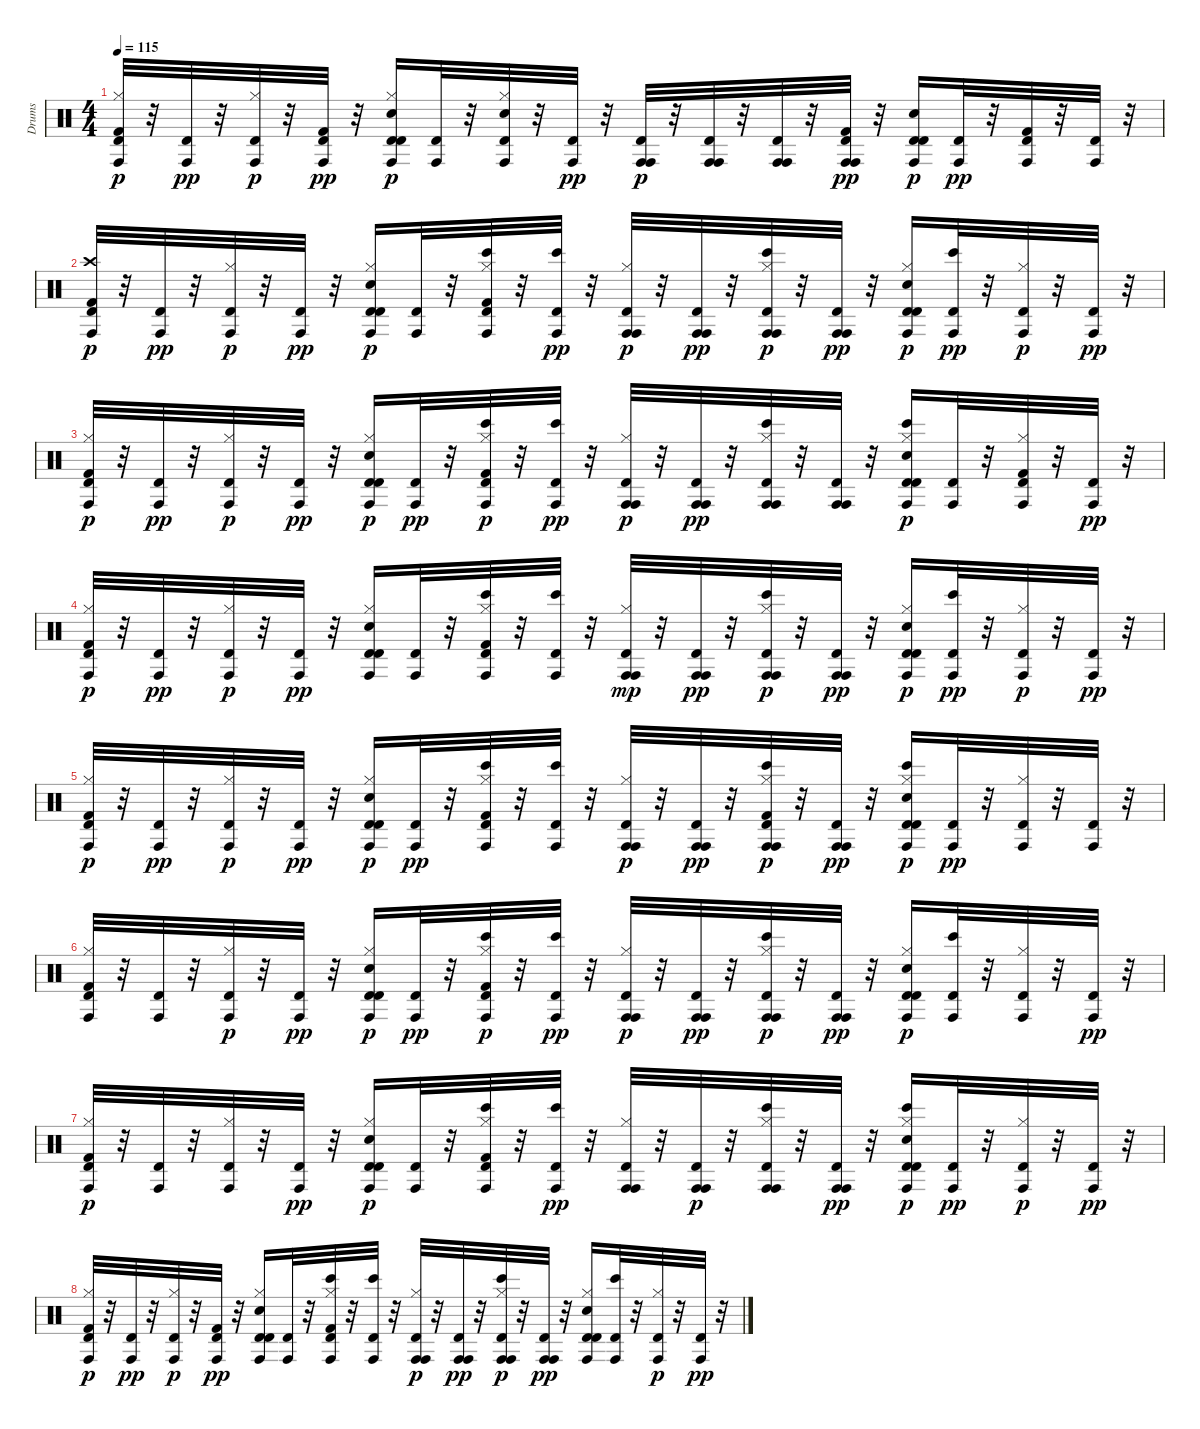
\track ("Drums" "Drums") {instrument percussion}
\staff {score}
\articulation defaults
\ts (4 4)
\tempo 115
\clef neutral
\ks c
("Conga high (hit)" "Hi-Hat (closed)" "Kick (hit) 2" "Timbale high (hit)").32{dy p} r.32 ("Conga high (hit)" "Timbale high (hit)").32{dy pp} r.32 ("Conga high (hit)" "Hi-Hat (closed)" "Timbale high (hit)").32{dy p} r.32 ("Conga high (hit)" "Kick (hit) 2" "Timbale high (hit)").32{dy pp} r.32 ("Conga high (hit)" "Timbale high (hit)" "Hi-Hat (closed)" "Electric Snare (hit)" "Timbale high (hit)").16{dy p} ("Conga high (hit)" "Timbale high (hit)").32 r.32 ("Conga high (hit)" "Electric Snare (hit)" "Hi-Hat (closed)" "Timbale high (hit)").32 r.32 ("Conga high (hit)" "Timbale high (hit)").32{dy pp} r.32 ("Conga high (hit)" "Conga high (hit)" "Timbale high (hit)").32{dy p} r.32 ("Conga high (hit)" "Conga high (hit)" "Timbale high (hit)").32 r.32 ("Conga high (hit)" "Conga high (hit)" "Timbale high (hit)").32 r.32 ("Conga high (hit)" "Conga high (hit)" "Kick (hit) 2" "Timbale high (hit)").32{dy pp} r.32 ("Conga high (hit)" "Timbale high (hit)" "Electric Snare (hit)" "Timbale high (hit)").16{dy p} ("Conga high (hit)" "Timbale high (hit)").32{dy pp} r.32 ("Conga high (hit)" "Kick (hit) 2" "Timbale high (hit)").32 r.32 ("Conga high (hit)" "Timbale high (hit)").32 r.32 |
("Conga high (hit)" "Crash high (hit)" "Kick (hit) 2" "Timbale high (hit)").32{dy p} r.32 ("Conga high (hit)" "Timbale high (hit)").32{dy pp} r.32 ("Conga high (hit)" "Hi-Hat (closed)" "Timbale high (hit)").32{dy p} r.32 ("Conga high (hit)" "Timbale high (hit)").32{dy pp} r.32 ("Conga high (hit)" "Timbale high (hit)" "Hi-Hat (closed)" "Electric Snare (hit)" "Timbale high (hit)").16{dy p} ("Conga high (hit)" "Timbale high (hit)").32 r.32 ("Conga high (hit)" "Bongo High (hit)" "Hi-Hat (closed)" "Kick (hit) 2" "Timbale high (hit)").32 r.32 ("Conga high (hit)" "Bongo High (hit)" "Timbale high (hit)").32{dy pp} r.32 ("Conga high (hit)" "Conga high (hit)" "Hi-Hat (closed)" "Timbale high (hit)").32{dy p} r.32 ("Conga high (hit)" "Conga high (hit)" "Timbale high (hit)").32{dy pp} r.32 ("Conga high (hit)" "Conga high (hit)" "Bongo High (hit)" "Hi-Hat (closed)" "Timbale high (hit)").32{dy p} r.32 ("Conga high (hit)" "Conga high (hit)" "Timbale high (hit)").32{dy pp} r.32 ("Conga high (hit)" "Timbale high (hit)" "Hi-Hat (closed)" "Electric Snare (hit)" "Timbale high (hit)").16{dy p} ("Conga high (hit)" "Bongo High (hit)" "Timbale high (hit)").32{dy pp} r.32 ("Conga high (hit)" "Hi-Hat (closed)" "Timbale high (hit)").32{dy p} r.32 ("Conga high (hit)" "Timbale high (hit)").32{dy pp} r.32 |
("Conga high (hit)" "Hi-Hat (closed)" "Kick (hit) 2" "Timbale high (hit)").32{dy p} r.32 ("Conga high (hit)" "Timbale high (hit)").32{dy pp} r.32 ("Conga high (hit)" "Hi-Hat (closed)" "Timbale high (hit)").32{dy p} r.32 ("Conga high (hit)" "Timbale high (hit)").32{dy pp} r.32 ("Conga high (hit)" "Timbale high (hit)" "Hi-Hat (closed)" "Electric Snare (hit)" "Timbale high (hit)").16{dy p} ("Conga high (hit)" "Timbale high (hit)").32{dy pp} r.32 ("Conga high (hit)" "Bongo High (hit)" "Hi-Hat (closed)" "Kick (hit) 2" "Timbale high (hit)").32{dy p} r.32 ("Conga high (hit)" "Bongo High (hit)" "Timbale high (hit)").32{dy pp} r.32 ("Conga high (hit)" "Conga high (hit)" "Hi-Hat (closed)" "Timbale high (hit)").32{dy p} r.32 ("Conga high (hit)" "Conga high (hit)" "Timbale high (hit)").32{dy pp} r.32 ("Conga high (hit)" "Conga high (hit)" "Bongo High (hit)" "Hi-Hat (closed)" "Timbale high (hit)").32 r.32 ("Conga high (hit)" "Conga high (hit)" "Timbale high (hit)").32 r.32 ("Conga high (hit)" "Bongo High (hit)" "Timbale high (hit)" "Hi-Hat (closed)" "Electric Snare (hit)" "Timbale high (hit)").16{dy p} ("Conga high (hit)" "Timbale high (hit)").32 r.32 ("Conga high (hit)" "Kick (hit) 2" "Hi-Hat (closed)" "Timbale high (hit)").32 r.32 ("Conga high (hit)" "Timbale high (hit)").32{dy pp} r.32 |
("Conga high (hit)" "Hi-Hat (closed)" "Kick (hit) 2" "Timbale high (hit)").32{dy p} r.32 ("Conga high (hit)" "Timbale high (hit)").32{dy pp} r.32 ("Conga high (hit)" "Hi-Hat (closed)" "Timbale high (hit)").32{dy p} r.32 ("Conga high (hit)" "Timbale high (hit)").32{dy pp} r.32 ("Conga high (hit)" "Timbale high (hit)" "Hi-Hat (closed)" "Electric Snare (hit)" "Timbale high (hit)").16 ("Conga high (hit)" "Timbale high (hit)").32 r.32 ("Conga high (hit)" "Bongo High (hit)" "Hi-Hat (closed)" "Kick (hit) 2" "Timbale high (hit)").32 r.32 ("Conga high (hit)" "Bongo High (hit)" "Timbale high (hit)").32 r.32 ("Conga high (hit)" "Conga high (hit)" "Hi-Hat (closed)" "Timbale high (hit)").32{dy mp} r.32 ("Conga high (hit)" "Conga high (hit)" "Timbale high (hit)").32{dy pp} r.32 ("Conga high (hit)" "Conga high (hit)" "Bongo High (hit)" "Hi-Hat (closed)" "Timbale high (hit)").32{dy p} r.32 ("Conga high (hit)" "Conga high (hit)" "Timbale high (hit)").32{dy pp} r.32 ("Conga high (hit)" "Timbale high (hit)" "Hi-Hat (closed)" "Electric Snare (hit)" "Timbale high (hit)").16{dy p} ("Conga high (hit)" "Bongo High (hit)" "Timbale high (hit)").32{dy pp} r.32 ("Conga high (hit)" "Hi-Hat (closed)" "Timbale high (hit)").32{dy p} r.32 ("Conga high (hit)" "Timbale high (hit)").32{dy pp} r.32 |
("Conga high (hit)" "Hi-Hat (closed)" "Kick (hit) 2" "Timbale high (hit)").32{dy p} r.32 ("Conga high (hit)" "Timbale high (hit)").32{dy pp} r.32 ("Conga high (hit)" "Hi-Hat (closed)" "Timbale high (hit)").32{dy p} r.32 ("Conga high (hit)" "Timbale high (hit)").32{dy pp} r.32 ("Conga high (hit)" "Timbale high (hit)" "Hi-Hat (closed)" "Electric Snare (hit)" "Timbale high (hit)").16{dy p} ("Conga high (hit)" "Timbale high (hit)").32{dy pp} r.32 ("Conga high (hit)" "Bongo High (hit)" "Hi-Hat (closed)" "Kick (hit) 2" "Timbale high (hit)").32 r.32 ("Conga high (hit)" "Bongo High (hit)" "Timbale high (hit)").32 r.32 ("Conga high (hit)" "Conga high (hit)" "Hi-Hat (closed)" "Timbale high (hit)").32{dy p} r.32 ("Conga high (hit)" "Conga high (hit)" "Timbale high (hit)").32{dy pp} r.32 ("Conga high (hit)" "Conga high (hit)" "Bongo High (hit)" "Kick (hit) 2" "Hi-Hat (closed)" "Timbale high (hit)").32{dy p} r.32 ("Conga high (hit)" "Conga high (hit)" "Timbale high (hit)").32{dy pp} r.32 ("Conga high (hit)" "Bongo High (hit)" "Timbale high (hit)" "Hi-Hat (closed)" "Electric Snare (hit)" "Timbale high (hit)").16{dy p} ("Conga high (hit)" "Timbale high (hit)").32{dy pp} r.32 ("Conga high (hit)" "Hi-Hat (closed)" "Timbale high (hit)").32 r.32 ("Conga high (hit)" "Timbale high (hit)").32 r.32 |
("Conga high (hit)" "Hi-Hat (closed)" "Kick (hit) 2" "Timbale high (hit)").32 r.32 ("Conga high (hit)" "Timbale high (hit)").32 r.32 ("Conga high (hit)" "Hi-Hat (closed)" "Timbale high (hit)").32{dy p} r.32 ("Conga high (hit)" "Timbale high (hit)").32{dy pp} r.32 ("Conga high (hit)" "Timbale high (hit)" "Hi-Hat (closed)" "Electric Snare (hit)" "Timbale high (hit)").16{dy p} ("Conga high (hit)" "Timbale high (hit)").32{dy pp} r.32 ("Conga high (hit)" "Bongo High (hit)" "Hi-Hat (closed)" "Kick (hit) 2" "Timbale high (hit)").32{dy p} r.32 ("Conga high (hit)" "Bongo High (hit)" "Timbale high (hit)").32{dy pp} r.32 ("Conga high (hit)" "Conga high (hit)" "Hi-Hat (closed)" "Timbale high (hit)").32{dy p} r.32 ("Conga high (hit)" "Conga high (hit)" "Timbale high (hit)").32{dy pp} r.32 ("Conga high (hit)" "Conga high (hit)" "Bongo High (hit)" "Hi-Hat (closed)" "Timbale high (hit)").32{dy p} r.32 ("Conga high (hit)" "Conga high (hit)" "Timbale high (hit)").32{dy pp} r.32 ("Conga high (hit)" "Timbale high (hit)" "Hi-Hat (closed)" "Electric Snare (hit)" "Timbale high (hit)").16{dy p} ("Conga high (hit)" "Bongo High (hit)" "Timbale high (hit)").32 r.32 ("Conga high (hit)" "Hi-Hat (closed)" "Timbale high (hit)").32 r.32 ("Conga high (hit)" "Timbale high (hit)").32{dy pp} r.32 |
("Conga high (hit)" "Hi-Hat (closed)" "Kick (hit) 2" "Timbale high (hit)").32{dy p} r.32 ("Conga high (hit)" "Timbale high (hit)").32 r.32 ("Conga high (hit)" "Hi-Hat (closed)" "Timbale high (hit)").32 r.32 ("Conga high (hit)" "Timbale high (hit)").32{dy pp} r.32 ("Conga high (hit)" "Timbale high (hit)" "Hi-Hat (closed)" "Electric Snare (hit)" "Timbale high (hit)").16{dy p} ("Conga high (hit)" "Timbale high (hit)").32 r.32 ("Conga high (hit)" "Bongo High (hit)" "Hi-Hat (closed)" "Kick (hit) 2" "Timbale high (hit)").32 r.32 ("Conga high (hit)" "Bongo High (hit)" "Timbale high (hit)").32{dy pp} r.32 ("Conga high (hit)" "Conga high (hit)" "Hi-Hat (closed)" "Timbale high (hit)").32 r.32 ("Conga high (hit)" "Conga high (hit)" "Timbale high (hit)").32{dy p} r.32 ("Conga high (hit)" "Conga high (hit)" "Bongo High (hit)" "Hi-Hat (closed)" "Timbale high (hit)").32 r.32 ("Conga high (hit)" "Conga high (hit)" "Timbale high (hit)").32{dy pp} r.32 ("Conga high (hit)" "Bongo High (hit)" "Timbale high (hit)" "Hi-Hat (closed)" "Electric Snare (hit)" "Timbale high (hit)").16{dy p} ("Conga high (hit)" "Timbale high (hit)").32{dy pp} r.32 ("Conga high (hit)" "Hi-Hat (closed)" "Timbale high (hit)").32{dy p} r.32 ("Conga high (hit)" "Timbale high (hit)").32{dy pp} r.32 |
("Conga high (hit)" "Hi-Hat (closed)" "Kick (hit) 2" "Timbale high (hit)").32{dy p} r.32 ("Conga high (hit)" "Timbale high (hit)").32{dy pp} r.32 ("Conga high (hit)" "Hi-Hat (closed)" "Timbale high (hit)").32{dy p} r.32 ("Conga high (hit)" "Kick (hit) 2" "Timbale high (hit)").32{dy pp} r.32 ("Conga high (hit)" "Timbale high (hit)" "Hi-Hat (closed)" "Electric Snare (hit)" "Timbale high (hit)").16 ("Conga high (hit)" "Timbale high (hit)").32 r.32 ("Conga high (hit)" "Bongo High (hit)" "Hi-Hat (closed)" "Kick (hit) 2" "Timbale high (hit)").32 r.32 ("Conga high (hit)" "Bongo High (hit)" "Timbale high (hit)").32 r.32 ("Conga high (hit)" "Conga high (hit)" "Hi-Hat (closed)" "Timbale high (hit)").32{dy p} r.32 ("Conga high (hit)" "Conga high (hit)" "Timbale high (hit)").32{dy pp} r.32 ("Conga high (hit)" "Conga high (hit)" "Bongo High (hit)" "Hi-Hat (closed)" "Timbale high (hit)").32{dy p} r.32 ("Conga high (hit)" "Conga high (hit)" "Timbale high (hit)").32{dy pp} r.32 ("Conga high (hit)" "Timbale high (hit)" "Hi-Hat (closed)" "Electric Snare (hit)" "Timbale high (hit)").16 ("Conga high (hit)" "Bongo High (hit)" "Timbale high (hit)").32 r.32 ("Conga high (hit)" "Hi-Hat (closed)" "Timbale high (hit)").32{dy p} r.32 ("Conga high (hit)" "Timbale high (hit)").32{dy pp} r.32
